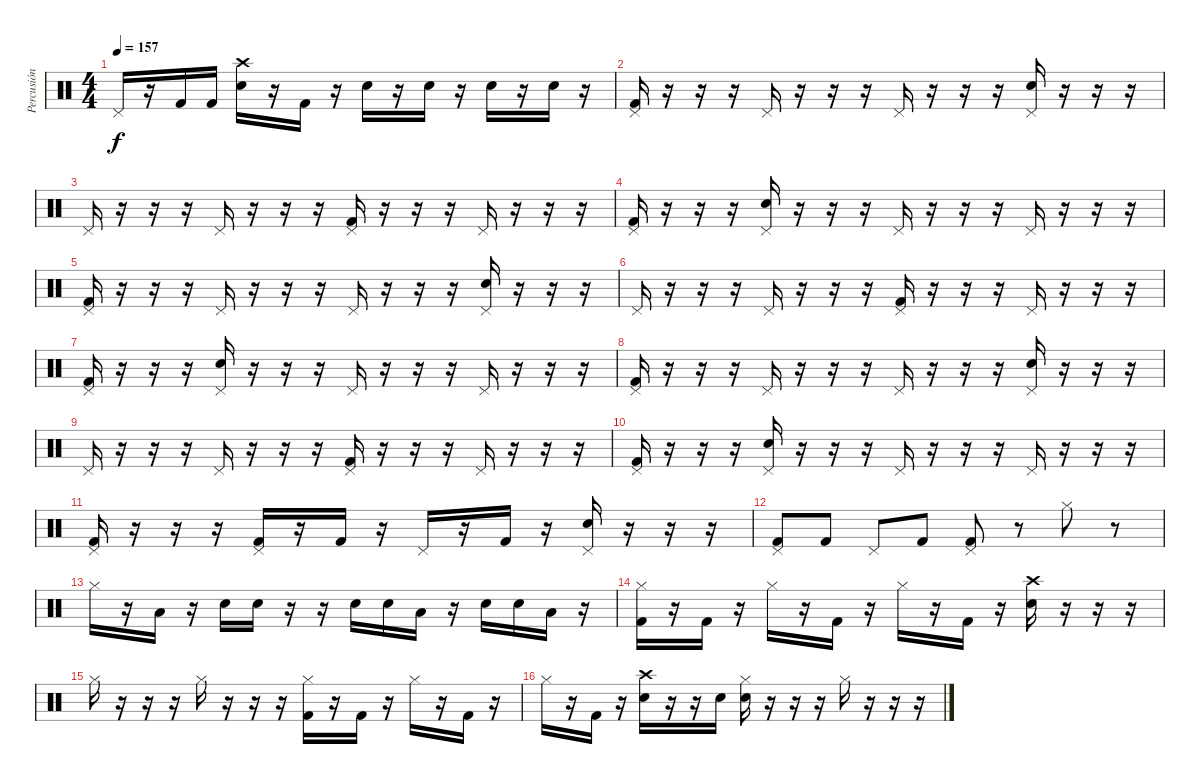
\track ("Percusión" "Percusión") {instrument percussion}
\staff {score}
\articulation defaults
\ts (4 4)
\tempo 157
\clef neutral
\ks c "Pedal Hi-Hat (hit)".16{dy f}
r.16 "Kick (hit) 2".16 "Kick (hit) 2".16 ("Crash high (hit)" "Electric Snare (hit)").16 r.16 "Kick (hit) 2".16 r.16 "Electric Snare (hit)".16 r.16 "Electric Snare (hit)".16 r.16 "Electric Snare (hit)".16 r.16 "Electric Snare (hit)".16 r.16 |
("Pedal Hi-Hat (hit)" "Kick (hit) 2").16 r.16 r.16 r.16 "Pedal Hi-Hat (hit)".16 r.16 r.16 r.16 "Pedal Hi-Hat (hit)".16 r.16 r.16 r.16 ("Pedal Hi-Hat (hit)" "Electric Snare (hit)").16 r.16 r.16 r.16 |
"Pedal Hi-Hat (hit)".16 r.16 r.16 r.16 "Pedal Hi-Hat (hit)".16 r.16 r.16 r.16 ("Pedal Hi-Hat (hit)" "Kick (hit) 2").16 r.16 r.16 r.16 "Pedal Hi-Hat (hit)".16 r.16 r.16 r.16 |
("Pedal Hi-Hat (hit)" "Kick (hit) 2").16 r.16 r.16 r.16 ("Pedal Hi-Hat (hit)" "Electric Snare (hit)").16 r.16 r.16 r.16 "Pedal Hi-Hat (hit)".16 r.16 r.16 r.16 "Pedal Hi-Hat (hit)".16 r.16 r.16 r.16 |
("Pedal Hi-Hat (hit)" "Kick (hit) 2").16 r.16 r.16 r.16 "Pedal Hi-Hat (hit)".16 r.16 r.16 r.16 "Pedal Hi-Hat (hit)".16 r.16 r.16 r.16 ("Pedal Hi-Hat (hit)" "Electric Snare (hit)").16 r.16 r.16 r.16 |
"Pedal Hi-Hat (hit)".16 r.16 r.16 r.16 "Pedal Hi-Hat (hit)".16 r.16 r.16 r.16 ("Pedal Hi-Hat (hit)" "Kick (hit) 2").16 r.16 r.16 r.16 "Pedal Hi-Hat (hit)".16 r.16 r.16 r.16 |
("Pedal Hi-Hat (hit)" "Kick (hit) 2").16 r.16 r.16 r.16 ("Pedal Hi-Hat (hit)" "Electric Snare (hit)").16 r.16 r.16 r.16 "Pedal Hi-Hat (hit)".16 r.16 r.16 r.16 "Pedal Hi-Hat (hit)".16 r.16 r.16 r.16 |
("Pedal Hi-Hat (hit)" "Kick (hit) 2").16 r.16 r.16 r.16 "Pedal Hi-Hat (hit)".16 r.16 r.16 r.16 "Pedal Hi-Hat (hit)".16 r.16 r.16 r.16 ("Pedal Hi-Hat (hit)" "Electric Snare (hit)").16 r.16 r.16 r.16 |
"Pedal Hi-Hat (hit)".16 r.16 r.16 r.16 "Pedal Hi-Hat (hit)".16 r.16 r.16 r.16 ("Pedal Hi-Hat (hit)" "Kick (hit) 2").16 r.16 r.16 r.16 "Pedal Hi-Hat (hit)".16 r.16 r.16 r.16 |
("Pedal Hi-Hat (hit)" "Kick (hit) 2").16 r.16 r.16 r.16 ("Pedal Hi-Hat (hit)" "Electric Snare (hit)").16 r.16 r.16 r.16 "Pedal Hi-Hat (hit)".16 r.16 r.16 r.16 "Pedal Hi-Hat (hit)".16 r.16 r.16 r.16 |
("Pedal Hi-Hat (hit)" "Kick (hit) 2").16 r.16 r.16 r.16 ("Pedal Hi-Hat (hit)" "Kick (hit) 2").16 r.16 "Kick (hit) 2".16 r.16 "Pedal Hi-Hat (hit)".16 r.16 "Kick (hit) 2".16 r.16 ("Pedal Hi-Hat (hit)" "Electric Snare (hit)").16 r.16 r.16 r.16 |
("Pedal Hi-Hat (hit)" "Kick (hit) 2").8 "Kick (hit) 2".8 "Pedal Hi-Hat (hit)".8 "Kick (hit) 2".8 ("Pedal Hi-Hat (hit)" "Kick (hit) 2").8 r.8 "Hi-Hat (closed)".8 r.8 |
"Hi-Hat (closed)".16 r.16 "Low Tom (hit)".16 r.16 "Electric Snare (hit)".16 "Electric Snare (hit)".16 r.16 r.16 "Electric Snare (hit)".16 "Electric Snare (hit)".16 "Low Tom (hit)".16 r.16 "Electric Snare (hit)".16 "Electric Snare (hit)".16 "Low Tom (hit)".16 r.16 |
("Hi-Hat (closed)" "Kick (hit) 2").16 r.16 "Kick (hit) 2".16 r.16 "Hi-Hat (closed)".16 r.16 "Kick (hit) 2".16 r.16 "Hi-Hat (closed)".16 r.16 "Kick (hit) 2".16 r.16 ("Crash high (hit)" "Electric Snare (hit)").16 r.16 r.16 r.16 |
"Hi-Hat (closed)".16 r.16 r.16 r.16 "Hi-Hat (closed)".16 r.16 r.16 r.16 ("Hi-Hat (closed)" "Kick (hit) 2").16 r.16 "Kick (hit) 2".16 r.16 "Hi-Hat (closed)".16 r.16 "Kick (hit) 2".16 r.16 |
"Hi-Hat (closed)".16 r.16 "Kick (hit) 2".16 r.16 ("Crash high (hit)" "Electric Snare (hit)").16 r.16 r.16 "Electric Snare (hit)".16 ("Hi-Hat (closed)" "Electric Snare (hit)").16 r.16 r.16 r.16 "Hi-Hat (closed)".16 r.16 r.16 r.16
